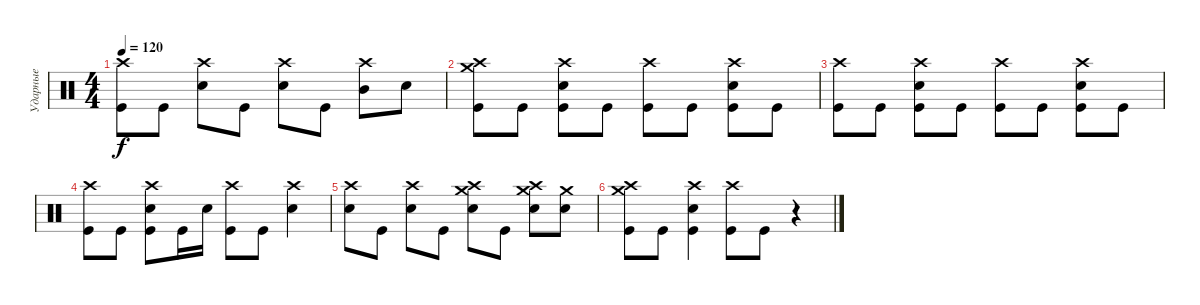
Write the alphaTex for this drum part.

\track ("Ударные" "Ударные") {instrument percussion}
\staff {score}
\articulation defaults
\ts (4 4)
\tempo 120
\clef neutral
\ks c
("Crash high (hit)" "Kick (hit)").8{dy f} "Kick (hit)".8 ("Crash high (hit)" "Snare (hit) 2").8 "Kick (hit)".8 ("Crash high (hit)" "Snare (hit) 2").8 "Kick (hit)".8 ("Crash high (hit)" "Mid Tom (hit)").8 "Snare (hit) 2".8 |
("Crash medium (hit)" "Crash high (hit)" "Kick (hit)").8 "Kick (hit)".8 ("Crash high (hit)" "Snare (hit) 2" "Kick (hit)").8 "Kick (hit)".8 ("Crash high (hit)" "Kick (hit)").8 "Kick (hit)".8 ("Crash high (hit)" "Snare (hit) 2" "Kick (hit)").8 "Kick (hit)".8 |
("Crash high (hit)" "Kick (hit)").8 "Kick (hit)".8 ("Crash high (hit)" "Snare (hit) 2" "Kick (hit)").8 "Kick (hit)".8 ("Crash high (hit)" "Kick (hit)").8 "Kick (hit)".8 ("Crash high (hit)" "Snare (hit) 2" "Kick (hit)").8 "Kick (hit)".8 |
("Crash high (hit)" "Kick (hit)").8 "Kick (hit)".8 ("Crash high (hit)" "Snare (hit) 2" "Kick (hit)").8 "Kick (hit)".16 "Snare (hit) 2".16 ("Crash high (hit)" "Kick (hit)").8 "Kick (hit)".8 ("Crash high (hit)" "Snare (hit) 2").4 |
("Crash high (hit)" "Snare (hit) 2").8 "Kick (hit)".8 ("Crash high (hit)" "Snare (hit) 2").8 "Kick (hit)".8 ("Crash medium (hit)" "Crash high (hit)" "Snare (hit) 2").8 "Kick (hit)".8 ("Crash medium (hit)" "Crash high (hit)" "Snare (hit) 2").8 ("Crash medium (hit)" "Snare (hit) 2").8 |
("Crash medium (hit)" "Crash high (hit)" "Kick (hit)").8 "Kick (hit)".8 ("Crash high (hit)" "Snare (hit) 2" "Kick (hit)").4 ("Crash high (hit)" "Kick (hit)").8 "Kick (hit)".8 r.4
